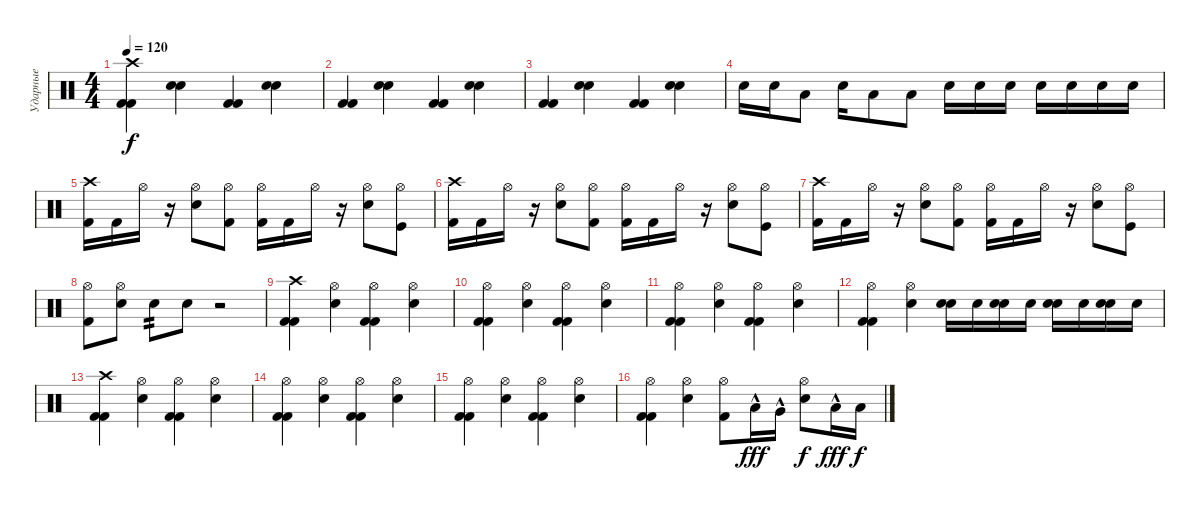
\track ("Ударные" "Ударные") {instrument percussion}
\staff {score}
\articulation defaults
\ts (4 4)
\tempo 120
\clef neutral
\ks c
("Crash high (hit)" "Kick (hit) 2" "Kick (hit) 2").4{dy f} ("Electric Snare (hit)" "Electric Snare (hit)").4 ("Kick (hit) 2" "Kick (hit) 2").4 ("Electric Snare (hit)" "Electric Snare (hit)").4 |
("Kick (hit) 2" "Kick (hit) 2").4 ("Electric Snare (hit)" "Electric Snare (hit)").4 ("Kick (hit) 2" "Kick (hit) 2").4 ("Electric Snare (hit)" "Electric Snare (hit)").4 |
("Kick (hit) 2" "Kick (hit) 2").4 ("Electric Snare (hit)" "Electric Snare (hit)").4 ("Kick (hit) 2" "Kick (hit) 2").4 ("Electric Snare (hit)" "Electric Snare (hit)").4 |
"Electric Snare (hit)".16 "Electric Snare (hit)".16 "Low Floor Tom (hit)".8 "Electric Snare (hit)".16 "Low Floor Tom (hit)".8 "Low Floor Tom (hit)".8 "Electric Snare (hit)".16 "Electric Snare (hit)".16 "Electric Snare (hit)".16 "Electric Snare (hit)".16 "Electric Snare (hit)".16 "Electric Snare (hit)".16 "Electric Snare (hit)".16 |
("Kick (hit) 2" "Crash high (hit)").16 "Kick (hit) 2".16 "Hi-Hat (open)".16 r.16 ("Electric Snare (hit)" "Hi-Hat (open)").8 ("Kick (hit) 2" "Hi-Hat (open)").8 ("Kick (hit) 2" "Hi-Hat (open)").16 "Kick (hit) 2".16 "Hi-Hat (open)".16 r.16 ("Electric Snare (hit)" "Hi-Hat (open)").8 ("Kick (hit)" "Hi-Hat (open)").8 |
("Kick (hit) 2" "Crash high (hit)").16 "Kick (hit) 2".16 "Hi-Hat (open)".16 r.16 ("Electric Snare (hit)" "Hi-Hat (open)").8 ("Kick (hit) 2" "Hi-Hat (open)").8 ("Kick (hit) 2" "Hi-Hat (open)").16 "Kick (hit) 2".16 "Hi-Hat (open)".16 r.16 ("Electric Snare (hit)" "Hi-Hat (open)").8 ("Kick (hit)" "Hi-Hat (open)").8 |
("Kick (hit) 2" "Crash high (hit)").16 "Kick (hit) 2".16 "Hi-Hat (open)".16 r.16 ("Electric Snare (hit)" "Hi-Hat (open)").8 ("Kick (hit) 2" "Hi-Hat (open)").8 ("Kick (hit) 2" "Hi-Hat (open)").16 "Kick (hit) 2".16 "Hi-Hat (open)".16 r.16 ("Electric Snare (hit)" "Hi-Hat (open)").8 ("Kick (hit)" "Hi-Hat (open)").8 |
("Hi-Hat (open)" "Kick (hit) 2").8 ("Electric Snare (hit)" "Hi-Hat (open)").8 "Electric Snare (hit)".8{tp 2} "Electric Snare (hit)".8 r.2 |
("Crash high (hit)" "Kick (hit) 2" "Kick (hit) 2").4 ("Snare (hit) 2" "Hi-Hat (open)").4 ("Hi-Hat (open)" "Kick (hit) 2" "Kick (hit) 2").4 ("Snare (hit) 2" "Hi-Hat (open)").4 |
("Hi-Hat (open)" "Kick (hit) 2" "Kick (hit) 2").4 ("Snare (hit) 2" "Hi-Hat (open)").4 ("Hi-Hat (open)" "Kick (hit) 2" "Kick (hit) 2").4 ("Snare (hit) 2" "Hi-Hat (open)").4 |
("Hi-Hat (open)" "Kick (hit) 2" "Kick (hit) 2").4 ("Snare (hit) 2" "Hi-Hat (open)").4 ("Hi-Hat (open)" "Kick (hit) 2" "Kick (hit) 2").4 ("Snare (hit) 2" "Hi-Hat (open)").4 |
("Hi-Hat (open)" "Kick (hit) 2" "Kick (hit) 2").4 ("Hi-Hat (open)" "Snare (hit) 2").4 ("Snare (hit) 2" "Electric Snare (hit)").16 "Snare (hit) 2".16 ("Snare (hit) 2" "Electric Snare (hit)").16 "Snare (hit) 2".16 ("Snare (hit) 2" "Electric Snare (hit)").16 "Snare (hit) 2".16 ("Snare (hit) 2" "Electric Snare (hit)").16 "Snare (hit) 2".16 |
("Crash high (hit)" "Kick (hit) 2" "Kick (hit) 2").4 ("Snare (hit) 2" "Hi-Hat (open)").4 ("Hi-Hat (open)" "Kick (hit) 2" "Kick (hit) 2").4 ("Snare (hit) 2" "Hi-Hat (open)").4 |
("Hi-Hat (open)" "Kick (hit) 2" "Kick (hit) 2").4 ("Snare (hit) 2" "Hi-Hat (open)").4 ("Hi-Hat (open)" "Kick (hit) 2" "Kick (hit) 2").4 ("Snare (hit) 2" "Hi-Hat (open)").4 |
("Hi-Hat (open)" "Kick (hit) 2" "Kick (hit) 2").4 ("Snare (hit) 2" "Hi-Hat (open)").4 ("Hi-Hat (open)" "Kick (hit) 2" "Kick (hit) 2").4 ("Snare (hit) 2" "Hi-Hat (open)").4 |
("Hi-Hat (open)" "Kick (hit) 2" "Kick (hit) 2").4 ("Hi-Hat (open)" "Snare (hit) 2").4 ("Hi-Hat (open)" "Kick (hit) 2").8 "Low Floor Tom (hit)"{hac}.16{dy fff} "Very Low Tom (hit)"{hac}.16 ("Hi-Hat (open)" "Snare (hit) 2").8{dy f} "Low Tom (hit)"{hac}.16{dy fff} "Low Floor Tom (hit)".16{dy f}
